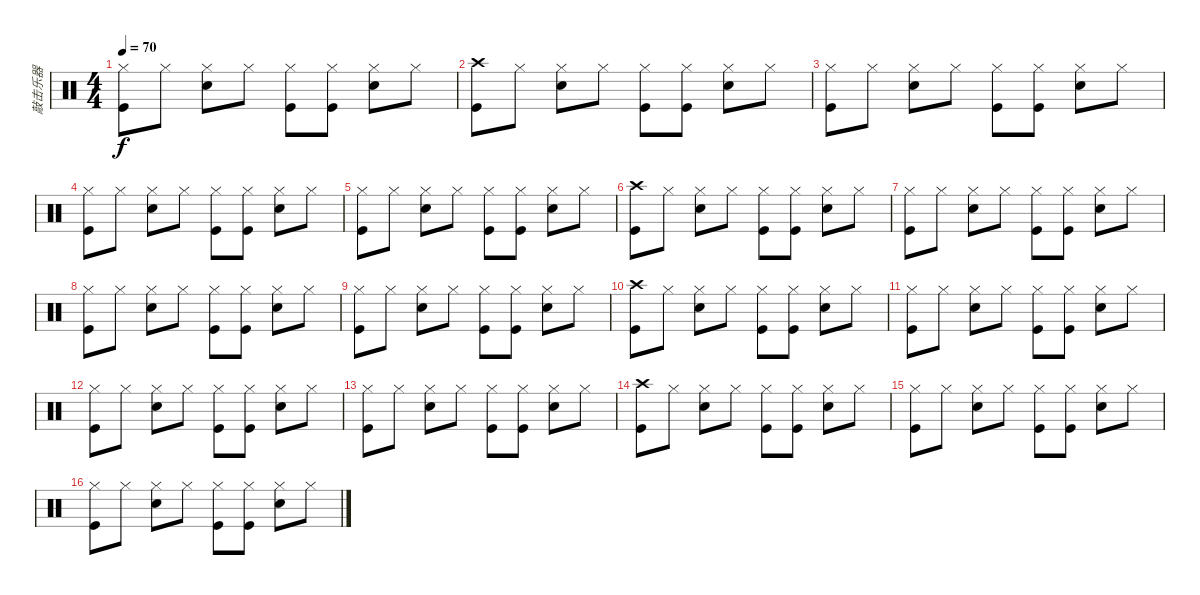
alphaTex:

\track ("敲击乐器" "敲击乐器") {instrument percussion}
\staff {score}
\articulation defaults
\ts (4 4)
\tempo 70
\clef neutral
\ks c
("Hi-Hat (closed)" "Kick (hit)").8{dy f} "Hi-Hat (closed)".8 ("Hi-Hat (closed)" "Snare (hit) 2").8 "Hi-Hat (closed)".8 ("Hi-Hat (closed)" "Kick (hit)").8 ("Hi-Hat (closed)" "Kick (hit)").8 ("Hi-Hat (closed)" "Snare (hit) 2").8 "Hi-Hat (closed)".8 |
("Crash high (hit)" "Kick (hit)").8 "Hi-Hat (closed)".8 ("Hi-Hat (closed)" "Snare (hit) 2").8 "Hi-Hat (closed)".8 ("Hi-Hat (closed)" "Kick (hit)").8 ("Hi-Hat (closed)" "Kick (hit)").8 ("Hi-Hat (closed)" "Snare (hit) 2").8 "Hi-Hat (closed)".8 |
("Hi-Hat (closed)" "Kick (hit)").8 "Hi-Hat (closed)".8 ("Hi-Hat (closed)" "Snare (hit) 2").8 "Hi-Hat (closed)".8 ("Hi-Hat (closed)" "Kick (hit)").8 ("Hi-Hat (closed)" "Kick (hit)").8 ("Hi-Hat (closed)" "Snare (hit) 2").8 "Hi-Hat (closed)".8 |
("Hi-Hat (closed)" "Kick (hit)").8 "Hi-Hat (closed)".8 ("Hi-Hat (closed)" "Snare (hit) 2").8 "Hi-Hat (closed)".8 ("Hi-Hat (closed)" "Kick (hit)").8 ("Hi-Hat (closed)" "Kick (hit)").8 ("Hi-Hat (closed)" "Snare (hit) 2").8 "Hi-Hat (closed)".8 |
("Hi-Hat (closed)" "Kick (hit)").8 "Hi-Hat (closed)".8 ("Hi-Hat (closed)" "Snare (hit) 2").8 "Hi-Hat (closed)".8 ("Hi-Hat (closed)" "Kick (hit)").8 ("Hi-Hat (closed)" "Kick (hit)").8 ("Hi-Hat (closed)" "Snare (hit) 2").8 "Hi-Hat (closed)".8 |
("Crash high (hit)" "Kick (hit)").8 "Hi-Hat (closed)".8 ("Hi-Hat (closed)" "Snare (hit) 2").8 "Hi-Hat (closed)".8 ("Hi-Hat (closed)" "Kick (hit)").8 ("Hi-Hat (closed)" "Kick (hit)").8 ("Hi-Hat (closed)" "Snare (hit) 2").8 "Hi-Hat (closed)".8 |
("Hi-Hat (closed)" "Kick (hit)").8 "Hi-Hat (closed)".8 ("Hi-Hat (closed)" "Snare (hit) 2").8 "Hi-Hat (closed)".8 ("Hi-Hat (closed)" "Kick (hit)").8 ("Hi-Hat (closed)" "Kick (hit)").8 ("Hi-Hat (closed)" "Snare (hit) 2").8 "Hi-Hat (closed)".8 |
("Hi-Hat (closed)" "Kick (hit)").8 "Hi-Hat (closed)".8 ("Hi-Hat (closed)" "Snare (hit) 2").8 "Hi-Hat (closed)".8 ("Hi-Hat (closed)" "Kick (hit)").8 ("Hi-Hat (closed)" "Kick (hit)").8 ("Hi-Hat (closed)" "Snare (hit) 2").8 "Hi-Hat (closed)".8 |
("Hi-Hat (closed)" "Kick (hit)").8 "Hi-Hat (closed)".8 ("Hi-Hat (closed)" "Snare (hit) 2").8 "Hi-Hat (closed)".8 ("Hi-Hat (closed)" "Kick (hit)").8 ("Hi-Hat (closed)" "Kick (hit)").8 ("Hi-Hat (closed)" "Snare (hit) 2").8 "Hi-Hat (closed)".8 |
("Crash high (hit)" "Kick (hit)").8 "Hi-Hat (closed)".8 ("Hi-Hat (closed)" "Snare (hit) 2").8 "Hi-Hat (closed)".8 ("Hi-Hat (closed)" "Kick (hit)").8 ("Hi-Hat (closed)" "Kick (hit)").8 ("Hi-Hat (closed)" "Snare (hit) 2").8 "Hi-Hat (closed)".8 |
("Hi-Hat (closed)" "Kick (hit)").8 "Hi-Hat (closed)".8 ("Hi-Hat (closed)" "Snare (hit) 2").8 "Hi-Hat (closed)".8 ("Hi-Hat (closed)" "Kick (hit)").8 ("Hi-Hat (closed)" "Kick (hit)").8 ("Hi-Hat (closed)" "Snare (hit) 2").8 "Hi-Hat (closed)".8 |
("Hi-Hat (closed)" "Kick (hit)").8 "Hi-Hat (closed)".8 ("Hi-Hat (closed)" "Snare (hit) 2").8 "Hi-Hat (closed)".8 ("Hi-Hat (closed)" "Kick (hit)").8 ("Hi-Hat (closed)" "Kick (hit)").8 ("Hi-Hat (closed)" "Snare (hit) 2").8 "Hi-Hat (closed)".8 |
("Hi-Hat (closed)" "Kick (hit)").8 "Hi-Hat (closed)".8 ("Hi-Hat (closed)" "Snare (hit) 2").8 "Hi-Hat (closed)".8 ("Hi-Hat (closed)" "Kick (hit)").8 ("Hi-Hat (closed)" "Kick (hit)").8 ("Hi-Hat (closed)" "Snare (hit) 2").8 "Hi-Hat (closed)".8 |
("Crash high (hit)" "Kick (hit)").8 "Hi-Hat (closed)".8 ("Hi-Hat (closed)" "Snare (hit) 2").8 "Hi-Hat (closed)".8 ("Hi-Hat (closed)" "Kick (hit)").8 ("Hi-Hat (closed)" "Kick (hit)").8 ("Hi-Hat (closed)" "Snare (hit) 2").8 "Hi-Hat (closed)".8 |
("Hi-Hat (closed)" "Kick (hit)").8 "Hi-Hat (closed)".8 ("Hi-Hat (closed)" "Snare (hit) 2").8 "Hi-Hat (closed)".8 ("Hi-Hat (closed)" "Kick (hit)").8 ("Hi-Hat (closed)" "Kick (hit)").8 ("Hi-Hat (closed)" "Snare (hit) 2").8 "Hi-Hat (closed)".8 |
("Hi-Hat (closed)" "Kick (hit)").8 "Hi-Hat (closed)".8 ("Hi-Hat (closed)" "Snare (hit) 2").8 "Hi-Hat (closed)".8 ("Hi-Hat (closed)" "Kick (hit)").8 ("Hi-Hat (closed)" "Kick (hit)").8 ("Hi-Hat (closed)" "Snare (hit) 2").8 "Hi-Hat (closed)".8
